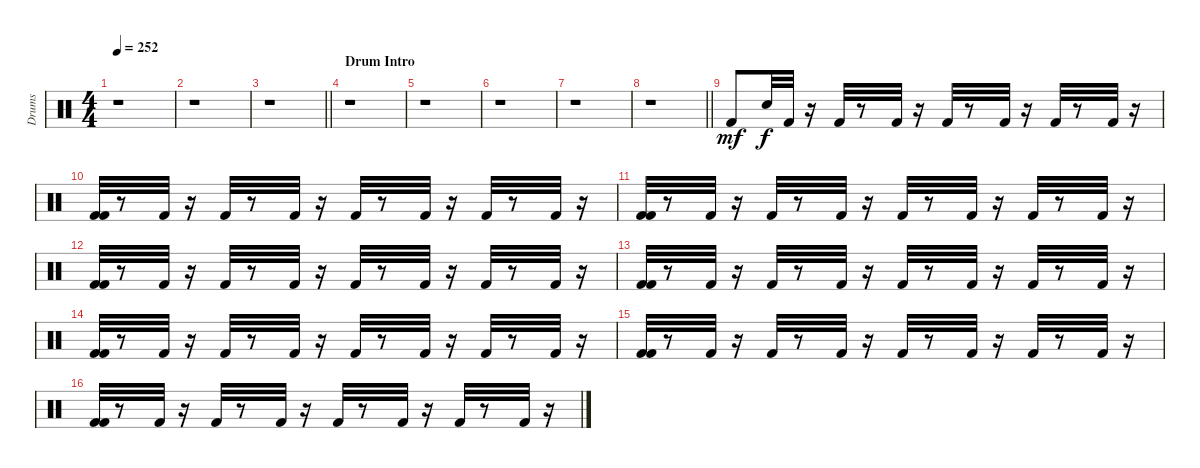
\track ("Drums" "Drums") {instrument percussion}
\staff {score}
\articulation defaults
\ts (4 4)
\tempo 252
\clef neutral
\ks c
r.1{dy mf} |
r.1 |
\barLineRight lightlight
r.1 |
\section ("" "Drum Intro")
r.1 |
r.1 |
r.1 |
r.1 |
\barLineRight lightlight
r.1 |
"Kick (hit) 2".8 "Snare (hit)".32{dy f} "Kick (hit) 2".32 r.16 "Kick (hit) 2".32 r.8 "Kick (hit) 2".32 r.16 "Kick (hit) 2".32 r.8 "Kick (hit) 2".32 r.16 "Kick (hit) 2".32 r.8 "Kick (hit) 2".32 r.16 |
("Kick (hit) 2" "Kick (hit) 2").32 r.8 "Kick (hit) 2".32 r.16 "Kick (hit) 2".32 r.8 "Kick (hit) 2".32 r.16 "Kick (hit) 2".32 r.8 "Kick (hit) 2".32 r.16 "Kick (hit) 2".32 r.8 "Kick (hit) 2".32 r.16 |
("Kick (hit) 2" "Kick (hit) 2").32 r.8 "Kick (hit) 2".32 r.16 "Kick (hit) 2".32 r.8 "Kick (hit) 2".32 r.16 "Kick (hit) 2".32 r.8 "Kick (hit) 2".32 r.16 "Kick (hit) 2".32 r.8 "Kick (hit) 2".32 r.16 |
("Kick (hit) 2" "Kick (hit) 2").32 r.8 "Kick (hit) 2".32 r.16 "Kick (hit) 2".32 r.8 "Kick (hit) 2".32 r.16 "Kick (hit) 2".32 r.8 "Kick (hit) 2".32 r.16 "Kick (hit) 2".32 r.8 "Kick (hit) 2".32 r.16 |
("Kick (hit) 2" "Kick (hit) 2").32 r.8 "Kick (hit) 2".32 r.16 "Kick (hit) 2".32 r.8 "Kick (hit) 2".32 r.16 "Kick (hit) 2".32 r.8 "Kick (hit) 2".32 r.16 "Kick (hit) 2".32 r.8 "Kick (hit) 2".32 r.16 |
("Kick (hit) 2" "Kick (hit) 2").32 r.8 "Kick (hit) 2".32 r.16 "Kick (hit) 2".32 r.8 "Kick (hit) 2".32 r.16 "Kick (hit) 2".32 r.8 "Kick (hit) 2".32 r.16 "Kick (hit) 2".32 r.8 "Kick (hit) 2".32 r.16 |
("Kick (hit) 2" "Kick (hit) 2").32 r.8 "Kick (hit) 2".32 r.16 "Kick (hit) 2".32 r.8 "Kick (hit) 2".32 r.16 "Kick (hit) 2".32 r.8 "Kick (hit) 2".32 r.16 "Kick (hit) 2".32 r.8 "Kick (hit) 2".32 r.16 |
("Kick (hit) 2" "Kick (hit) 2").32 r.8 "Kick (hit) 2".32 r.16 "Kick (hit) 2".32 r.8 "Kick (hit) 2".32 r.16 "Kick (hit) 2".32 r.8 "Kick (hit) 2".32 r.16 "Kick (hit) 2".32 r.8 "Kick (hit) 2".32 r.16
